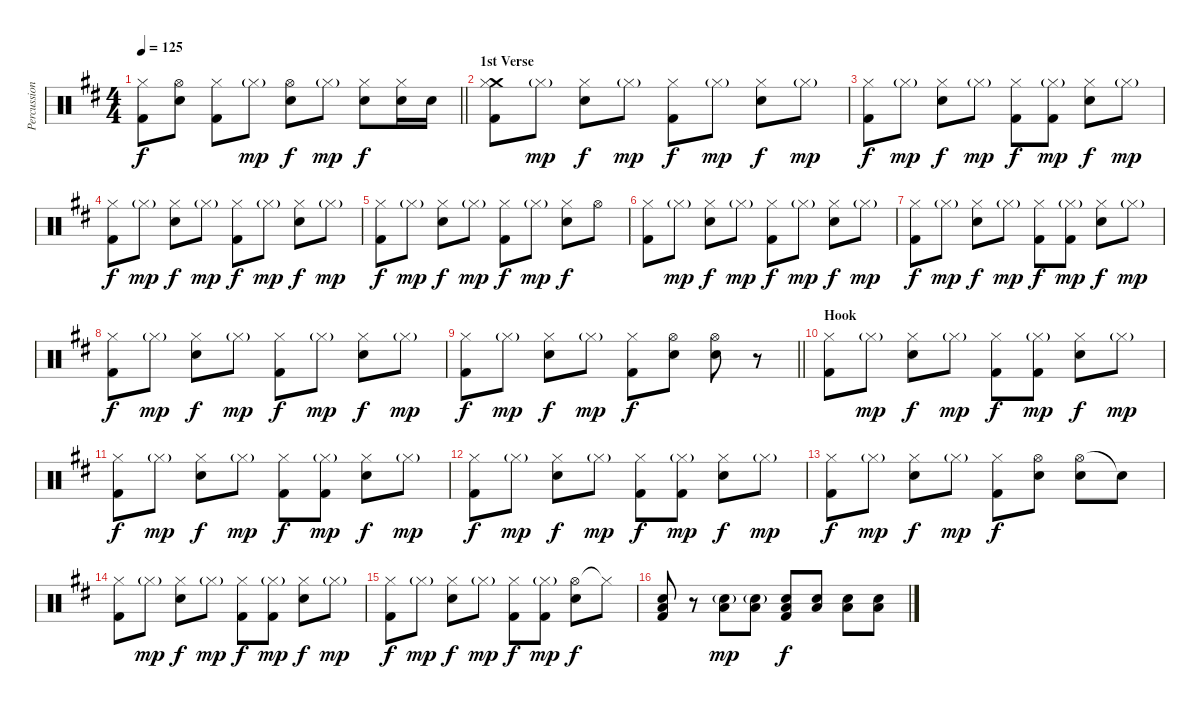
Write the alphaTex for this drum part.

\track ("Percussion" "Percussion") {instrument percussion}
\staff {score}
\articulation defaults
\ts (4 4)
\tempo 125
\clef neutral
\barLineRight lightlight
\ks bminor
("Hi-Hat (closed)" "Kick (hit) 2").8{dy f} ("Hi-Hat (open)" "Snare (hit) 2").8 ("Hi-Hat (closed)" "Kick (hit) 2").8 "Hi-Hat (closed)"{g}.8{dy mp} ("Hi-Hat (open)" "Snare (hit) 2").8{dy f} "Hi-Hat (closed)"{g}.8{dy mp} ("Hi-Hat (closed)" "Snare (hit) 2").8{dy f} ("Hi-Hat (closed)" "Electric Snare (hit)").16 "Electric Snare (hit)".16 |
\section ("" "1st Verse")
("Crash medium (hit)" "Hi-Hat (closed)" "Kick (hit) 2").8 "Hi-Hat (closed)"{g}.8{dy mp} ("Hi-Hat (closed)" "Snare (hit) 2").8{dy f} "Hi-Hat (closed)"{g}.8{dy mp} ("Hi-Hat (closed)" "Kick (hit) 2").8{dy f} "Hi-Hat (closed)"{g}.8{dy mp} ("Hi-Hat (closed)" "Snare (hit) 2").8{dy f} "Hi-Hat (closed)"{g}.8{dy mp} |
("Hi-Hat (closed)" "Kick (hit) 2").8{dy f} "Hi-Hat (closed)"{g}.8{dy mp} ("Hi-Hat (closed)" "Snare (hit) 2").8{dy f} "Hi-Hat (closed)"{g}.8{dy mp} ("Hi-Hat (closed)" "Kick (hit) 2").8{dy f} ("Hi-Hat (closed)"{g} "Kick (hit) 2").8{dy mp} ("Hi-Hat (closed)" "Snare (hit) 2").8{dy f} "Hi-Hat (closed)"{g}.8{dy mp} |
("Hi-Hat (closed)" "Kick (hit) 2").8{dy f} "Hi-Hat (closed)"{g}.8{dy mp} ("Hi-Hat (closed)" "Snare (hit) 2").8{dy f} "Hi-Hat (closed)"{g}.8{dy mp} ("Hi-Hat (closed)" "Kick (hit) 2").8{dy f} "Hi-Hat (closed)"{g}.8{dy mp} ("Hi-Hat (closed)" "Snare (hit) 2").8{dy f} "Hi-Hat (closed)"{g}.8{dy mp} |
("Hi-Hat (closed)" "Kick (hit) 2").8{dy f} "Hi-Hat (closed)"{g}.8{dy mp} ("Hi-Hat (closed)" "Snare (hit) 2").8{dy f} "Hi-Hat (closed)"{g}.8{dy mp} ("Hi-Hat (closed)" "Kick (hit) 2").8{dy f} "Hi-Hat (closed)"{g}.8{dy mp} ("Hi-Hat (closed)" "Snare (hit) 2").8{dy f} "Hi-Hat (open)".8 |
("Hi-Hat (closed)" "Kick (hit) 2").8 "Hi-Hat (closed)"{g}.8{dy mp} ("Hi-Hat (closed)" "Snare (hit) 2").8{dy f} "Hi-Hat (closed)"{g}.8{dy mp} ("Hi-Hat (closed)" "Kick (hit) 2").8{dy f} "Hi-Hat (closed)"{g}.8{dy mp} ("Hi-Hat (closed)" "Snare (hit) 2").8{dy f} "Hi-Hat (closed)"{g}.8{dy mp} |
("Hi-Hat (closed)" "Kick (hit) 2").8{dy f} "Hi-Hat (closed)"{g}.8{dy mp} ("Hi-Hat (closed)" "Snare (hit) 2").8{dy f} "Hi-Hat (closed)"{g}.8{dy mp} ("Hi-Hat (closed)" "Kick (hit) 2").8{dy f} ("Hi-Hat (closed)"{g} "Kick (hit) 2").8{dy mp} ("Hi-Hat (closed)" "Snare (hit) 2").8{dy f} "Hi-Hat (closed)"{g}.8{dy mp} |
("Hi-Hat (closed)" "Kick (hit) 2").8{dy f} "Hi-Hat (closed)"{g}.8{dy mp} ("Hi-Hat (closed)" "Snare (hit) 2").8{dy f} "Hi-Hat (closed)"{g}.8{dy mp} ("Hi-Hat (closed)" "Kick (hit) 2").8{dy f} "Hi-Hat (closed)"{g}.8{dy mp} ("Hi-Hat (closed)" "Snare (hit) 2").8{dy f} "Hi-Hat (closed)"{g}.8{dy mp} |
\barLineRight lightlight
("Hi-Hat (closed)" "Kick (hit) 2").8{dy f} "Hi-Hat (closed)"{g}.8{dy mp} ("Hi-Hat (closed)" "Snare (hit) 2").8{dy f} "Hi-Hat (closed)"{g}.8{dy mp} ("Hi-Hat (closed)" "Kick (hit) 2").8{dy f} ("Hi-Hat (open)" "Snare (hit) 2").8 ("Hi-Hat (open)" "Snare (hit) 2").8 r.8 |
\section ("" "Hook")
("Hi-Hat (closed)" "Kick (hit) 2").8 "Hi-Hat (closed)"{g}.8{dy mp} ("Hi-Hat (closed)" "Snare (hit) 2").8{dy f} "Hi-Hat (closed)"{g}.8{dy mp} ("Hi-Hat (closed)" "Kick (hit) 2").8{dy f} ("Hi-Hat (closed)"{g} "Kick (hit) 2").8{dy mp} ("Hi-Hat (closed)" "Snare (hit) 2").8{dy f} "Hi-Hat (closed)"{g}.8{dy mp} |
("Hi-Hat (closed)" "Kick (hit) 2").8{dy f} "Hi-Hat (closed)"{g}.8{dy mp} ("Hi-Hat (closed)" "Snare (hit) 2").8{dy f} "Hi-Hat (closed)"{g}.8{dy mp} ("Hi-Hat (closed)" "Kick (hit) 2").8{dy f} ("Hi-Hat (closed)"{g} "Kick (hit) 2").8{dy mp} ("Hi-Hat (closed)" "Snare (hit) 2").8{dy f} "Hi-Hat (closed)"{g}.8{dy mp} |
("Hi-Hat (closed)" "Kick (hit) 2").8{dy f} "Hi-Hat (closed)"{g}.8{dy mp} ("Hi-Hat (closed)" "Snare (hit) 2").8{dy f} "Hi-Hat (closed)"{g}.8{dy mp} ("Hi-Hat (closed)" "Kick (hit) 2").8{dy f} ("Hi-Hat (closed)"{g} "Kick (hit) 2").8{dy mp} ("Hi-Hat (closed)" "Snare (hit) 2").8{dy f} "Hi-Hat (closed)"{g}.8{dy mp} |
("Hi-Hat (closed)" "Kick (hit) 2").8{dy f} "Hi-Hat (closed)"{g}.8{dy mp} ("Hi-Hat (closed)" "Snare (hit) 2").8{dy f} "Hi-Hat (closed)"{g}.8{dy mp} ("Hi-Hat (closed)" "Kick (hit) 2").8{dy f} ("Hi-Hat (open)" "Snare (hit) 2").8 ("Hi-Hat (open)" "Snare (hit) 2").8 "Snare (hit)"{t}.8 |
("Hi-Hat (closed)" "Kick (hit) 2").8 "Hi-Hat (closed)"{g}.8{dy mp} ("Hi-Hat (closed)" "Snare (hit) 2").8{dy f} "Hi-Hat (closed)"{g}.8{dy mp} ("Hi-Hat (closed)" "Kick (hit) 2").8{dy f} ("Hi-Hat (closed)"{g} "Kick (hit) 2").8{dy mp} ("Hi-Hat (closed)" "Snare (hit) 2").8{dy f} "Hi-Hat (closed)"{g}.8{dy mp} |
("Hi-Hat (closed)" "Kick (hit) 2").8{dy f} "Hi-Hat (closed)"{g}.8{dy mp} ("Hi-Hat (closed)" "Snare (hit) 2").8{dy f} "Hi-Hat (closed)"{g}.8{dy mp} ("Hi-Hat (closed)" "Kick (hit) 2").8{dy f} ("Hi-Hat (closed)"{g} "Kick (hit) 2").8{dy mp} ("Hi-Hat (open)" "Snare (hit) 2").8{dy f} "Hi-Hat (closed)"{t}.8 |
("Low Floor Tom (hit)" "Snare (hit) 2" "Kick (hit) 2").8 r.8 ("Low Floor Tom (hit)" "Electric Snare (hit)"{g}).8{dy mp} ("Low Floor Tom (hit)" "Electric Snare (hit)"{g}).8 ("Low Floor Tom (hit)" "Electric Snare (hit)" "Kick (hit) 2").8{dy f} ("Low Floor Tom (hit)" "Electric Snare (hit)").8 ("Low Floor Tom (hit)" "Snare (hit) 2").8 ("Low Floor Tom (hit)" "Snare (hit) 2").8
